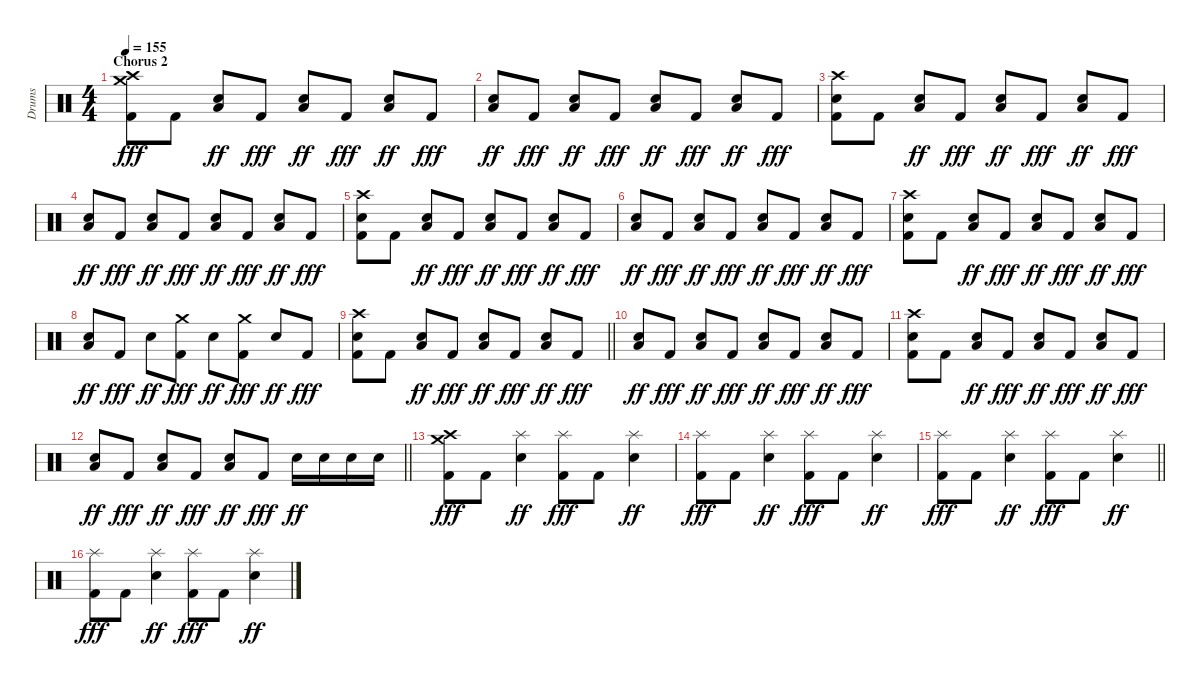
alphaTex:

\track ("Drums" "Drums") {instrument percussion}
\staff {score}
\articulation defaults
\ts (4 4)
\section ("" "Chorus 2")
\tempo 155
\clef neutral
\ks c
("Crash high (hit)" "Crash medium (hit)" "Kick (hit) 2").8{dy fff} "Kick (hit) 2".8 ("Snare (hit) 2" "Low Floor Tom (hit)").8{dy ff} "Kick (hit) 2".8{dy fff} ("Snare (hit) 2" "Low Floor Tom (hit)").8{dy ff} "Kick (hit) 2".8{dy fff} ("Snare (hit) 2" "Low Floor Tom (hit)").8{dy ff} "Kick (hit) 2".8{dy fff} |
("Snare (hit) 2" "Low Floor Tom (hit)").8{dy ff} "Kick (hit) 2".8{dy fff} ("Snare (hit) 2" "Low Floor Tom (hit)").8{dy ff} "Kick (hit) 2".8{dy fff} ("Snare (hit) 2" "Low Floor Tom (hit)").8{dy ff} "Kick (hit) 2".8{dy fff} ("Snare (hit) 2" "Low Floor Tom (hit)").8{dy ff} "Kick (hit) 2".8{dy fff} |
("Crash high (hit)" "Snare (hit) 2" "Kick (hit) 2").8 "Kick (hit) 2".8 ("Snare (hit) 2" "Low Floor Tom (hit)").8{dy ff} "Kick (hit) 2".8{dy fff} ("Snare (hit) 2" "Low Floor Tom (hit)").8{dy ff} "Kick (hit) 2".8{dy fff} ("Snare (hit) 2" "Low Floor Tom (hit)").8{dy ff} "Kick (hit) 2".8{dy fff} |
("Snare (hit) 2" "Low Floor Tom (hit)").8{dy ff} "Kick (hit) 2".8{dy fff} ("Snare (hit) 2" "Low Floor Tom (hit)").8{dy ff} "Kick (hit) 2".8{dy fff} ("Snare (hit) 2" "Low Floor Tom (hit)").8{dy ff} "Kick (hit) 2".8{dy fff} ("Snare (hit) 2" "Low Floor Tom (hit)").8{dy ff} "Kick (hit) 2".8{dy fff} |
("Crash high (hit)" "Snare (hit) 2" "Kick (hit) 2").8 "Kick (hit) 2".8 ("Snare (hit) 2" "Low Floor Tom (hit)").8{dy ff} "Kick (hit) 2".8{dy fff} ("Snare (hit) 2" "Low Floor Tom (hit)").8{dy ff} "Kick (hit) 2".8{dy fff} ("Snare (hit) 2" "Low Floor Tom (hit)").8{dy ff} "Kick (hit) 2".8{dy fff} |
("Snare (hit) 2" "Low Floor Tom (hit)").8{dy ff} "Kick (hit) 2".8{dy fff} ("Snare (hit) 2" "Low Floor Tom (hit)").8{dy ff} "Kick (hit) 2".8{dy fff} ("Snare (hit) 2" "Low Floor Tom (hit)").8{dy ff} "Kick (hit) 2".8{dy fff} ("Snare (hit) 2" "Low Floor Tom (hit)").8{dy ff} "Kick (hit) 2".8{dy fff} |
("Crash high (hit)" "Snare (hit) 2" "Kick (hit) 2").8 "Kick (hit) 2".8 ("Snare (hit) 2" "Low Floor Tom (hit)").8{dy ff} "Kick (hit) 2".8{dy fff} ("Snare (hit) 2" "Low Floor Tom (hit)").8{dy ff} "Kick (hit) 2".8{dy fff} ("Snare (hit) 2" "Low Floor Tom (hit)").8{dy ff} "Kick (hit) 2".8{dy fff} |
("Snare (hit) 2" "Low Floor Tom (hit)").8{dy ff} "Kick (hit) 2".8{dy fff} "Snare (hit) 2".8{dy ff} ("Crash medium (hit)" "Kick (hit) 2").8{dy fff} "Snare (hit) 2".8{dy ff} ("Crash medium (hit)" "Kick (hit) 2").8{dy fff} "Snare (hit) 2".8{dy ff} "Kick (hit) 2".8{dy fff} |
\barLineRight lightlight
("Crash high (hit)" "Snare (hit) 2" "Kick (hit) 2").8 "Kick (hit) 2".8 ("Snare (hit) 2" "Low Floor Tom (hit)").8{dy ff} "Kick (hit) 2".8{dy fff} ("Snare (hit) 2" "Low Floor Tom (hit)").8{dy ff} "Kick (hit) 2".8{dy fff} ("Snare (hit) 2" "Low Floor Tom (hit)").8{dy ff} "Kick (hit) 2".8{dy fff} |
("Snare (hit) 2" "Low Floor Tom (hit)").8{dy ff} "Kick (hit) 2".8{dy fff} ("Snare (hit) 2" "Low Floor Tom (hit)").8{dy ff} "Kick (hit) 2".8{dy fff} ("Snare (hit) 2" "Low Floor Tom (hit)").8{dy ff} "Kick (hit) 2".8{dy fff} ("Snare (hit) 2" "Low Floor Tom (hit)").8{dy ff} "Kick (hit) 2".8{dy fff} |
("Crash high (hit)" "Snare (hit) 2" "Kick (hit) 2").8 "Kick (hit) 2".8 ("Snare (hit) 2" "Low Floor Tom (hit)").8{dy ff} "Kick (hit) 2".8{dy fff} ("Snare (hit) 2" "Low Floor Tom (hit)").8{dy ff} "Kick (hit) 2".8{dy fff} ("Snare (hit) 2" "Low Floor Tom (hit)").8{dy ff} "Kick (hit) 2".8{dy fff} |
\barLineRight lightlight
("Snare (hit) 2" "Low Floor Tom (hit)").8{dy ff} "Kick (hit) 2".8{dy fff} ("Snare (hit) 2" "Low Floor Tom (hit)").8{dy ff} "Kick (hit) 2".8{dy fff} ("Snare (hit) 2" "Low Floor Tom (hit)").8{dy ff} "Kick (hit) 2".8{dy fff} "Snare (hit) 2".16{dy ff} "Snare (hit) 2".16 "Snare (hit) 2".16 "Snare (hit) 2".16 |
\section ("" "")
("Crash high (hit)" "Crash medium (hit)" "Kick (hit) 2").8{dy fff} "Kick (hit) 2".8 ("Splash (hit)" "Snare (hit) 2").4{dy ff} ("Splash (hit)" "Kick (hit) 2").8{dy fff} "Kick (hit) 2".8 ("Splash (hit)" "Snare (hit) 2").4{dy ff} |
("Splash (hit)" "Kick (hit) 2").8{dy fff} "Kick (hit) 2".8 ("Splash (hit)" "Snare (hit) 2").4{dy ff} ("Splash (hit)" "Kick (hit) 2").8{dy fff} "Kick (hit) 2".8 ("Splash (hit)" "Snare (hit) 2").4{dy ff} |
\barLineRight lightlight
("Splash (hit)" "Kick (hit) 2").8{dy fff} "Kick (hit) 2".8 ("Splash (hit)" "Snare (hit) 2").4{dy ff} ("Splash (hit)" "Kick (hit) 2").8{dy fff} "Kick (hit) 2".8 ("Splash (hit)" "Snare (hit) 2").4{dy ff} |
("Splash (hit)" "Kick (hit) 2").8{dy fff} "Kick (hit) 2".8 ("Splash (hit)" "Snare (hit) 2").4{dy ff} ("Splash (hit)" "Kick (hit) 2").8{dy fff} "Kick (hit) 2".8 ("Splash (hit)" "Snare (hit) 2").4{dy ff}
